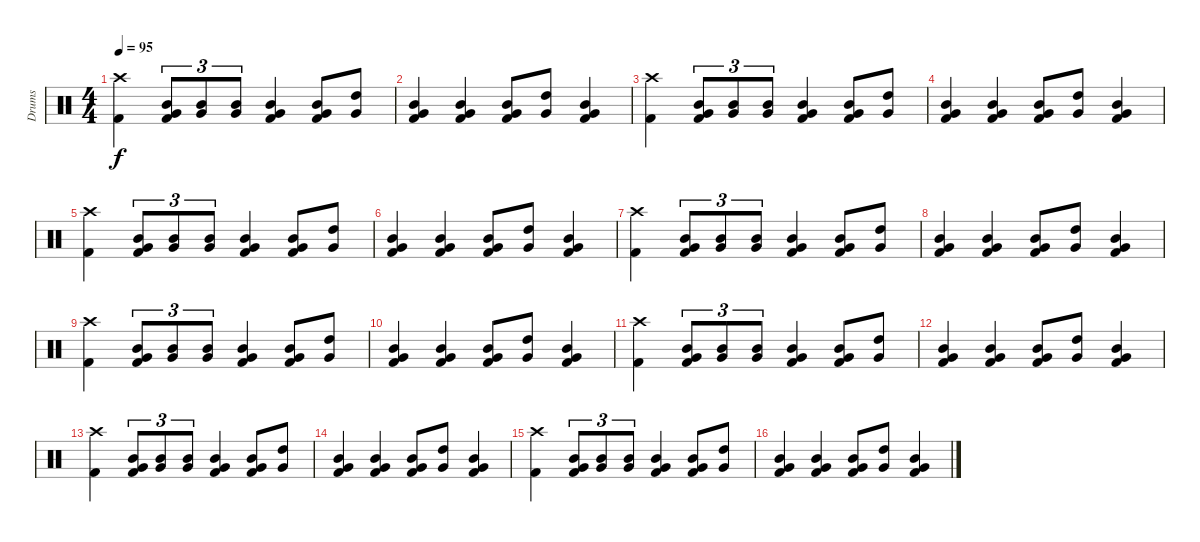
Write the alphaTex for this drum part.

\track ("Drums" "Drums") {instrument percussion}
\staff {score}
\articulation defaults
\ts (4 4)
\tempo 95
\clef neutral
\ks c
("Crash high (hit)" "Kick (hit) 2").4{dy f} ("Mid Tom (hit)" "Very Low Tom (hit)" "Kick (hit) 2").8{tu (3 2)} ("Mid Tom (hit)" "Very Low Tom (hit)").8{tu (3 2)} ("Mid Tom (hit)" "Very Low Tom (hit)").8{tu (3 2)} ("Mid Tom (hit)" "Very Low Tom (hit)" "Kick (hit) 2").4 ("Mid Tom (hit)" "Very Low Tom (hit)" "Kick (hit) 2").8 ("High Tom (hit)" "Very Low Tom (hit)").8 |
("Mid Tom (hit)" "Very Low Tom (hit)" "Kick (hit) 2").4 ("Mid Tom (hit)" "Very Low Tom (hit)" "Kick (hit) 2").4 ("Mid Tom (hit)" "Very Low Tom (hit)" "Kick (hit) 2").8 ("High Tom (hit)" "Very Low Tom (hit)").8 ("Mid Tom (hit)" "Very Low Tom (hit)" "Kick (hit) 2").4 |
("Crash high (hit)" "Kick (hit) 2").4 ("Mid Tom (hit)" "Very Low Tom (hit)" "Kick (hit) 2").8{tu (3 2)} ("Mid Tom (hit)" "Very Low Tom (hit)").8{tu (3 2)} ("Mid Tom (hit)" "Very Low Tom (hit)").8{tu (3 2)} ("Mid Tom (hit)" "Very Low Tom (hit)" "Kick (hit) 2").4 ("Mid Tom (hit)" "Very Low Tom (hit)" "Kick (hit) 2").8 ("High Tom (hit)" "Very Low Tom (hit)").8 |
("Mid Tom (hit)" "Very Low Tom (hit)" "Kick (hit) 2").4 ("Mid Tom (hit)" "Very Low Tom (hit)" "Kick (hit) 2").4 ("Mid Tom (hit)" "Very Low Tom (hit)" "Kick (hit) 2").8 ("High Tom (hit)" "Very Low Tom (hit)").8 ("Mid Tom (hit)" "Very Low Tom (hit)" "Kick (hit) 2").4 |
("Crash high (hit)" "Kick (hit) 2").4 ("Mid Tom (hit)" "Very Low Tom (hit)" "Kick (hit) 2").8{tu (3 2)} ("Mid Tom (hit)" "Very Low Tom (hit)").8{tu (3 2)} ("Mid Tom (hit)" "Very Low Tom (hit)").8{tu (3 2)} ("Mid Tom (hit)" "Very Low Tom (hit)" "Kick (hit) 2").4 ("Mid Tom (hit)" "Very Low Tom (hit)" "Kick (hit) 2").8 ("High Tom (hit)" "Very Low Tom (hit)").8 |
("Mid Tom (hit)" "Very Low Tom (hit)" "Kick (hit) 2").4 ("Mid Tom (hit)" "Very Low Tom (hit)" "Kick (hit) 2").4 ("Mid Tom (hit)" "Very Low Tom (hit)" "Kick (hit) 2").8 ("High Tom (hit)" "Very Low Tom (hit)").8 ("Mid Tom (hit)" "Very Low Tom (hit)" "Kick (hit) 2").4 |
("Crash high (hit)" "Kick (hit) 2").4 ("Mid Tom (hit)" "Very Low Tom (hit)" "Kick (hit) 2").8{tu (3 2)} ("Mid Tom (hit)" "Very Low Tom (hit)").8{tu (3 2)} ("Mid Tom (hit)" "Very Low Tom (hit)").8{tu (3 2)} ("Mid Tom (hit)" "Very Low Tom (hit)" "Kick (hit) 2").4 ("Mid Tom (hit)" "Very Low Tom (hit)" "Kick (hit) 2").8 ("High Tom (hit)" "Very Low Tom (hit)").8 |
("Mid Tom (hit)" "Very Low Tom (hit)" "Kick (hit) 2").4 ("Mid Tom (hit)" "Very Low Tom (hit)" "Kick (hit) 2").4 ("Mid Tom (hit)" "Very Low Tom (hit)" "Kick (hit) 2").8 ("High Tom (hit)" "Very Low Tom (hit)").8 ("Mid Tom (hit)" "Very Low Tom (hit)" "Kick (hit) 2").4 |
("Crash high (hit)" "Kick (hit) 2").4 ("Mid Tom (hit)" "Very Low Tom (hit)" "Kick (hit) 2").8{tu (3 2)} ("Mid Tom (hit)" "Very Low Tom (hit)").8{tu (3 2)} ("Mid Tom (hit)" "Very Low Tom (hit)").8{tu (3 2)} ("Mid Tom (hit)" "Very Low Tom (hit)" "Kick (hit) 2").4 ("Mid Tom (hit)" "Very Low Tom (hit)" "Kick (hit) 2").8 ("High Tom (hit)" "Very Low Tom (hit)").8 |
("Mid Tom (hit)" "Very Low Tom (hit)" "Kick (hit) 2").4 ("Mid Tom (hit)" "Very Low Tom (hit)" "Kick (hit) 2").4 ("Mid Tom (hit)" "Very Low Tom (hit)" "Kick (hit) 2").8 ("High Tom (hit)" "Very Low Tom (hit)").8 ("Mid Tom (hit)" "Very Low Tom (hit)" "Kick (hit) 2").4 |
("Crash high (hit)" "Kick (hit) 2").4 ("Mid Tom (hit)" "Very Low Tom (hit)" "Kick (hit) 2").8{tu (3 2)} ("Mid Tom (hit)" "Very Low Tom (hit)").8{tu (3 2)} ("Mid Tom (hit)" "Very Low Tom (hit)").8{tu (3 2)} ("Mid Tom (hit)" "Very Low Tom (hit)" "Kick (hit) 2").4 ("Mid Tom (hit)" "Very Low Tom (hit)" "Kick (hit) 2").8 ("High Tom (hit)" "Very Low Tom (hit)").8 |
("Mid Tom (hit)" "Very Low Tom (hit)" "Kick (hit) 2").4 ("Mid Tom (hit)" "Very Low Tom (hit)" "Kick (hit) 2").4 ("Mid Tom (hit)" "Very Low Tom (hit)" "Kick (hit) 2").8 ("High Tom (hit)" "Very Low Tom (hit)").8 ("Mid Tom (hit)" "Very Low Tom (hit)" "Kick (hit) 2").4 |
("Crash high (hit)" "Kick (hit) 2").4 ("Mid Tom (hit)" "Very Low Tom (hit)" "Kick (hit) 2").8{tu (3 2)} ("Mid Tom (hit)" "Very Low Tom (hit)").8{tu (3 2)} ("Mid Tom (hit)" "Very Low Tom (hit)").8{tu (3 2)} ("Mid Tom (hit)" "Very Low Tom (hit)" "Kick (hit) 2").4 ("Mid Tom (hit)" "Very Low Tom (hit)" "Kick (hit) 2").8 ("High Tom (hit)" "Very Low Tom (hit)").8 |
("Mid Tom (hit)" "Very Low Tom (hit)" "Kick (hit) 2").4 ("Mid Tom (hit)" "Very Low Tom (hit)" "Kick (hit) 2").4 ("Mid Tom (hit)" "Very Low Tom (hit)" "Kick (hit) 2").8 ("High Tom (hit)" "Very Low Tom (hit)").8 ("Mid Tom (hit)" "Very Low Tom (hit)" "Kick (hit) 2").4 |
("Crash high (hit)" "Kick (hit) 2").4 ("Mid Tom (hit)" "Very Low Tom (hit)" "Kick (hit) 2").8{tu (3 2)} ("Mid Tom (hit)" "Very Low Tom (hit)").8{tu (3 2)} ("Mid Tom (hit)" "Very Low Tom (hit)").8{tu (3 2)} ("Mid Tom (hit)" "Very Low Tom (hit)" "Kick (hit) 2").4 ("Mid Tom (hit)" "Very Low Tom (hit)" "Kick (hit) 2").8 ("High Tom (hit)" "Very Low Tom (hit)").8 |
("Mid Tom (hit)" "Very Low Tom (hit)" "Kick (hit) 2").4 ("Mid Tom (hit)" "Very Low Tom (hit)" "Kick (hit) 2").4 ("Mid Tom (hit)" "Very Low Tom (hit)" "Kick (hit) 2").8 ("High Tom (hit)" "Very Low Tom (hit)").8 ("Mid Tom (hit)" "Very Low Tom (hit)" "Kick (hit) 2").4
